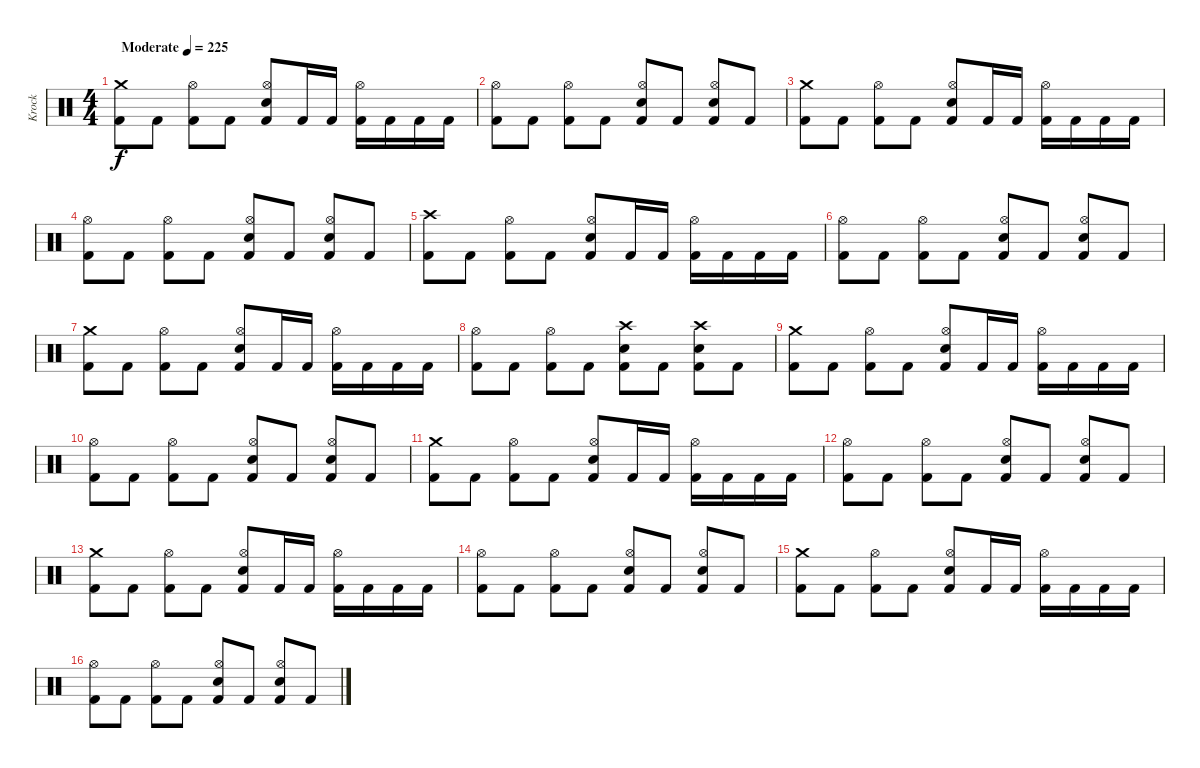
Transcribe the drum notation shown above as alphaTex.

\track ("Krock" "Krock") {instrument percussion}
\staff {score}
\articulation defaults
\ts (4 4)
\tempo (225 "Moderate")
\clef neutral
\ks c
("Kick (hit) 2" "Crash medium (hit)").8{dy f} "Kick (hit) 2".8 ("Kick (hit) 2" "Hi-Hat (open)").8 "Kick (hit) 2".8 ("Kick (hit) 2" "Electric Snare (hit)" "Hi-Hat (open)").8 "Kick (hit) 2".16 "Kick (hit) 2".16 ("Kick (hit) 2" "Hi-Hat (open)").16 "Kick (hit) 2".16 "Kick (hit) 2".16 "Kick (hit) 2".16 |
("Kick (hit) 2" "Hi-Hat (open)").8 "Kick (hit) 2".8 ("Kick (hit) 2" "Hi-Hat (open)").8 "Kick (hit) 2".8 ("Kick (hit) 2" "Electric Snare (hit)" "Hi-Hat (open)").8 "Kick (hit) 2".8 ("Kick (hit) 2" "Electric Snare (hit)" "Hi-Hat (open)").8 "Kick (hit) 2".8 |
("Kick (hit) 2" "Crash medium (hit)").8 "Kick (hit) 2".8 ("Kick (hit) 2" "Hi-Hat (open)").8 "Kick (hit) 2".8 ("Kick (hit) 2" "Electric Snare (hit)" "Hi-Hat (open)").8 "Kick (hit) 2".16 "Kick (hit) 2".16 ("Kick (hit) 2" "Hi-Hat (open)").16 "Kick (hit) 2".16 "Kick (hit) 2".16 "Kick (hit) 2".16 |
("Kick (hit) 2" "Hi-Hat (open)").8 "Kick (hit) 2".8 ("Kick (hit) 2" "Hi-Hat (open)").8 "Kick (hit) 2".8 ("Kick (hit) 2" "Electric Snare (hit)" "Hi-Hat (open)").8 "Kick (hit) 2".8 ("Kick (hit) 2" "Electric Snare (hit)" "Hi-Hat (open)").8 "Kick (hit) 2".8 |
("Kick (hit) 2" "Crash high (hit)").8 "Kick (hit) 2".8 ("Kick (hit) 2" "Hi-Hat (open)").8 "Kick (hit) 2".8 ("Kick (hit) 2" "Electric Snare (hit)" "Hi-Hat (open)").8 "Kick (hit) 2".16 "Kick (hit) 2".16 ("Kick (hit) 2" "Hi-Hat (open)").16 "Kick (hit) 2".16 "Kick (hit) 2".16 "Kick (hit) 2".16 |
("Kick (hit) 2" "Hi-Hat (open)").8 "Kick (hit) 2".8 ("Kick (hit) 2" "Hi-Hat (open)").8 "Kick (hit) 2".8 ("Kick (hit) 2" "Electric Snare (hit)" "Hi-Hat (open)").8 "Kick (hit) 2".8 ("Kick (hit) 2" "Electric Snare (hit)" "Hi-Hat (open)").8 "Kick (hit) 2".8 |
("Kick (hit) 2" "Crash medium (hit)").8 "Kick (hit) 2".8 ("Kick (hit) 2" "Hi-Hat (open)").8 "Kick (hit) 2".8 ("Kick (hit) 2" "Electric Snare (hit)" "Hi-Hat (open)").8 "Kick (hit) 2".16 "Kick (hit) 2".16 ("Kick (hit) 2" "Hi-Hat (open)").16 "Kick (hit) 2".16 "Kick (hit) 2".16 "Kick (hit) 2".16 |
("Kick (hit) 2" "Hi-Hat (open)").8 "Kick (hit) 2".8 ("Kick (hit) 2" "Hi-Hat (open)").8 "Kick (hit) 2".8 ("Kick (hit) 2" "Electric Snare (hit)" "Crash high (hit)").8 "Kick (hit) 2".8 ("Kick (hit) 2" "Electric Snare (hit)" "Crash high (hit)").8 "Kick (hit) 2".8 |
("Kick (hit) 2" "Crash medium (hit)").8 "Kick (hit) 2".8 ("Kick (hit) 2" "Hi-Hat (open)").8 "Kick (hit) 2".8 ("Kick (hit) 2" "Electric Snare (hit)" "Hi-Hat (open)").8 "Kick (hit) 2".16 "Kick (hit) 2".16 ("Kick (hit) 2" "Hi-Hat (open)").16 "Kick (hit) 2".16 "Kick (hit) 2".16 "Kick (hit) 2".16 |
("Kick (hit) 2" "Hi-Hat (open)").8 "Kick (hit) 2".8 ("Kick (hit) 2" "Hi-Hat (open)").8 "Kick (hit) 2".8 ("Kick (hit) 2" "Electric Snare (hit)" "Hi-Hat (open)").8 "Kick (hit) 2".8 ("Kick (hit) 2" "Electric Snare (hit)" "Hi-Hat (open)").8 "Kick (hit) 2".8 |
("Kick (hit) 2" "Crash medium (hit)").8 "Kick (hit) 2".8 ("Kick (hit) 2" "Hi-Hat (open)").8 "Kick (hit) 2".8 ("Kick (hit) 2" "Electric Snare (hit)" "Hi-Hat (open)").8 "Kick (hit) 2".16 "Kick (hit) 2".16 ("Kick (hit) 2" "Hi-Hat (open)").16 "Kick (hit) 2".16 "Kick (hit) 2".16 "Kick (hit) 2".16 |
("Kick (hit) 2" "Hi-Hat (open)").8 "Kick (hit) 2".8 ("Kick (hit) 2" "Hi-Hat (open)").8 "Kick (hit) 2".8 ("Kick (hit) 2" "Electric Snare (hit)" "Hi-Hat (open)").8 "Kick (hit) 2".8 ("Kick (hit) 2" "Electric Snare (hit)" "Hi-Hat (open)").8 "Kick (hit) 2".8 |
("Kick (hit) 2" "Crash medium (hit)").8 "Kick (hit) 2".8 ("Kick (hit) 2" "Hi-Hat (open)").8 "Kick (hit) 2".8 ("Kick (hit) 2" "Electric Snare (hit)" "Hi-Hat (open)").8 "Kick (hit) 2".16 "Kick (hit) 2".16 ("Kick (hit) 2" "Hi-Hat (open)").16 "Kick (hit) 2".16 "Kick (hit) 2".16 "Kick (hit) 2".16 |
("Kick (hit) 2" "Hi-Hat (open)").8 "Kick (hit) 2".8 ("Kick (hit) 2" "Hi-Hat (open)").8 "Kick (hit) 2".8 ("Kick (hit) 2" "Electric Snare (hit)" "Hi-Hat (open)").8 "Kick (hit) 2".8 ("Kick (hit) 2" "Electric Snare (hit)" "Hi-Hat (open)").8 "Kick (hit) 2".8 |
("Kick (hit) 2" "Crash medium (hit)").8 "Kick (hit) 2".8 ("Kick (hit) 2" "Hi-Hat (open)").8 "Kick (hit) 2".8 ("Kick (hit) 2" "Electric Snare (hit)" "Hi-Hat (open)").8 "Kick (hit) 2".16 "Kick (hit) 2".16 ("Kick (hit) 2" "Hi-Hat (open)").16 "Kick (hit) 2".16 "Kick (hit) 2".16 "Kick (hit) 2".16 |
("Kick (hit) 2" "Hi-Hat (open)").8 "Kick (hit) 2".8 ("Kick (hit) 2" "Hi-Hat (open)").8 "Kick (hit) 2".8 ("Kick (hit) 2" "Electric Snare (hit)" "Hi-Hat (open)").8 "Kick (hit) 2".8 ("Kick (hit) 2" "Electric Snare (hit)" "Hi-Hat (open)").8 "Kick (hit) 2".8
